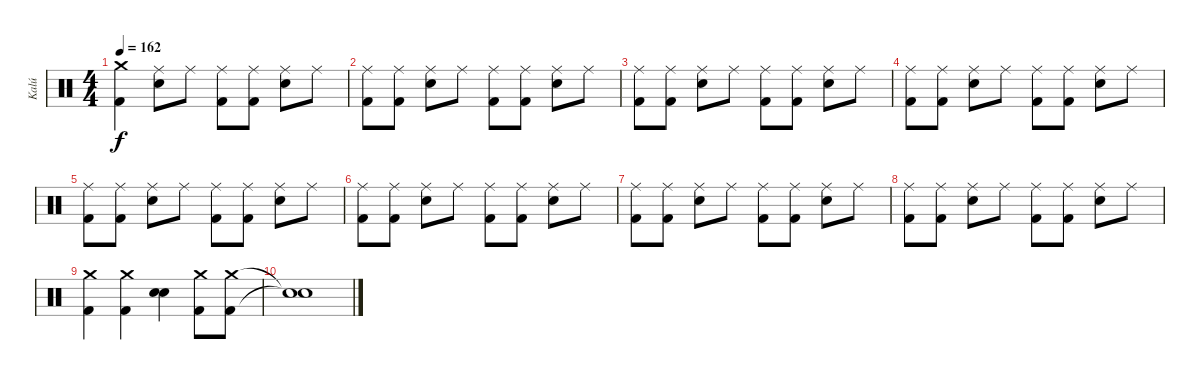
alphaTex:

\track ("Kalú" "Kalú") {instrument percussion}
\staff {score}
\articulation defaults
\ts (4 4)
\tempo 162
\clef neutral
\ks c
("Crash medium (hit)" "Kick (hit) 2").4{dy f} ("Ride (middle)" "Electric Snare (hit)").8 "Ride (middle)".8 ("Ride (middle)" "Kick (hit) 2").8 ("Ride (middle)" "Kick (hit) 2").8 ("Ride (middle)" "Electric Snare (hit)").8 "Ride (middle)".8 |
("Ride (middle)" "Kick (hit) 2").8 ("Ride (middle)" "Kick (hit) 2").8 ("Ride (middle)" "Electric Snare (hit)").8 "Ride (middle)".8 ("Ride (middle)" "Kick (hit) 2").8 ("Ride (middle)" "Kick (hit) 2").8 ("Ride (middle)" "Electric Snare (hit)").8 "Ride (middle)".8 |
("Ride (middle)" "Kick (hit) 2").8 ("Ride (middle)" "Kick (hit) 2").8 ("Ride (middle)" "Electric Snare (hit)").8 "Ride (middle)".8 ("Ride (middle)" "Kick (hit) 2").8 ("Ride (middle)" "Kick (hit) 2").8 ("Ride (middle)" "Electric Snare (hit)").8 "Ride (middle)".8 |
("Ride (middle)" "Kick (hit) 2").8 ("Ride (middle)" "Kick (hit) 2").8 ("Ride (middle)" "Electric Snare (hit)").8 "Ride (middle)".8 ("Ride (middle)" "Kick (hit) 2").8 ("Ride (middle)" "Kick (hit) 2").8 ("Ride (middle)" "Electric Snare (hit)").8 "Ride (middle)".8 |
("Ride (middle)" "Kick (hit) 2").8 ("Ride (middle)" "Kick (hit) 2").8 ("Ride (middle)" "Electric Snare (hit)").8 "Ride (middle)".8 ("Ride (middle)" "Kick (hit) 2").8 ("Ride (middle)" "Kick (hit) 2").8 ("Ride (middle)" "Electric Snare (hit)").8 "Ride (middle)".8 |
("Ride (middle)" "Kick (hit) 2").8 ("Ride (middle)" "Kick (hit) 2").8 ("Ride (middle)" "Electric Snare (hit)").8 "Ride (middle)".8 ("Ride (middle)" "Kick (hit) 2").8 ("Ride (middle)" "Kick (hit) 2").8 ("Ride (middle)" "Electric Snare (hit)").8 "Ride (middle)".8 |
("Ride (middle)" "Kick (hit) 2").8 ("Ride (middle)" "Kick (hit) 2").8 ("Ride (middle)" "Electric Snare (hit)").8 "Ride (middle)".8 ("Ride (middle)" "Kick (hit) 2").8 ("Ride (middle)" "Kick (hit) 2").8 ("Ride (middle)" "Electric Snare (hit)").8 "Ride (middle)".8 |
("Ride (middle)" "Kick (hit) 2").8 ("Ride (middle)" "Kick (hit) 2").8 ("Ride (middle)" "Electric Snare (hit)").8 "Ride (middle)".8 ("Ride (middle)" "Kick (hit) 2").8 ("Ride (middle)" "Kick (hit) 2").8 ("Ride (middle)" "Electric Snare (hit)").8 "Ride (middle)".8 |
("Crash medium (hit)" "Kick (hit) 2").4 ("Crash medium (hit)" "Kick (hit) 2").4 ("Electric Snare (hit)" "Electric Snare (hit)").4 ("Crash medium (hit)" "Kick (hit) 2").8 ("Crash medium (hit)" "Kick (hit) 2").8 |
("Snare (hit)"{t} "Snare (hit)"{t}).1
